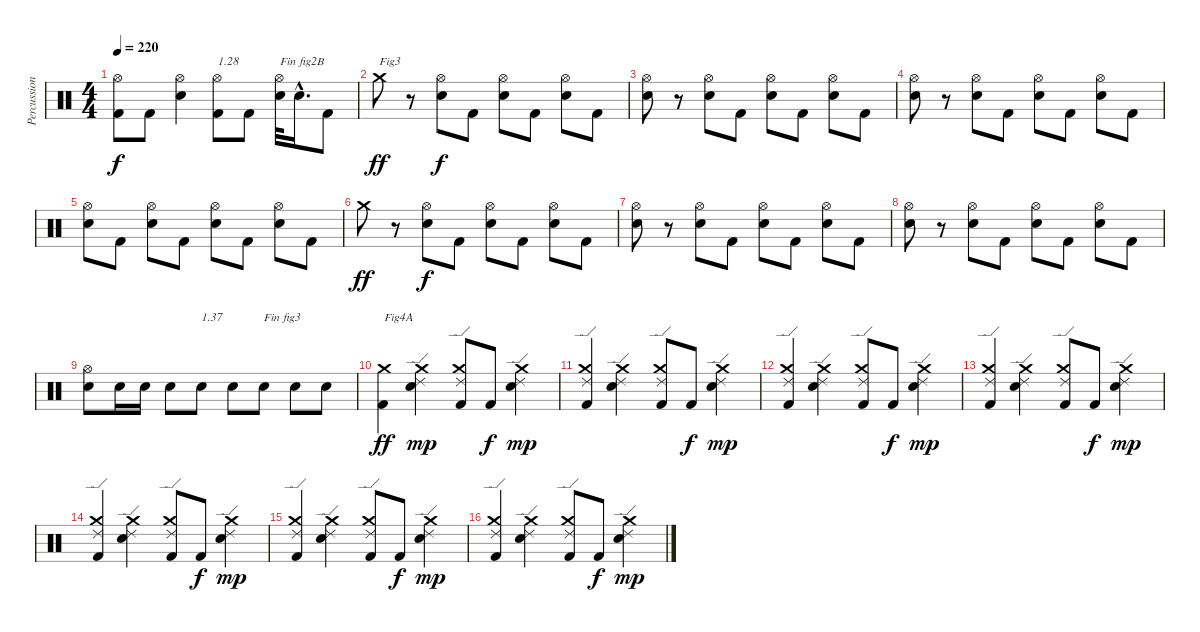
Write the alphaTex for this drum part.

\track ("Percussions" "Percussion") {instrument percussion}
\staff {score}
\articulation defaults
\ts (4 4)
\tempo 220
\clef neutral
\ks c
("Kick (hit) 2" "Hi-Hat (open)").8{dy f} "Kick (hit) 2".8 ("Electric Snare (hit)" "Hi-Hat (open)").4 ("Kick (hit) 2" "Hi-Hat (open)").8{txt "1.28"} "Kick (hit) 2".8 ("Electric Snare (hit)" "Hi-Hat (open)").32{txt "Fin fig2B"} "Electric Snare (hit)"{hac}.16{d} "Kick (hit) 2".8 |
"Crash medium (hit)".8{txt "Fig3" dy ff} r.8 ("Electric Snare (hit)" "Hi-Hat (open)").8{dy f} "Kick (hit) 2".8 ("Electric Snare (hit)" "Hi-Hat (open)").8 "Kick (hit) 2".8 ("Electric Snare (hit)" "Hi-Hat (open)").8 "Kick (hit) 2".8 |
("Electric Snare (hit)" "Hi-Hat (open)").8 r.8 ("Electric Snare (hit)" "Hi-Hat (open)").8 "Kick (hit) 2".8 ("Electric Snare (hit)" "Hi-Hat (open)").8 "Kick (hit) 2".8 ("Electric Snare (hit)" "Hi-Hat (open)").8 "Kick (hit) 2".8 |
("Electric Snare (hit)" "Hi-Hat (open)").8 r.8 ("Electric Snare (hit)" "Hi-Hat (open)").8 "Kick (hit) 2".8 ("Electric Snare (hit)" "Hi-Hat (open)").8 "Kick (hit) 2".8 ("Electric Snare (hit)" "Hi-Hat (open)").8 "Kick (hit) 2".8 |
("Electric Snare (hit)" "Hi-Hat (open)").8 "Kick (hit) 2".8 ("Electric Snare (hit)" "Hi-Hat (open)").8 "Kick (hit) 2".8 ("Electric Snare (hit)" "Hi-Hat (open)").8 "Kick (hit) 2".8 ("Electric Snare (hit)" "Hi-Hat (open)").8 "Kick (hit) 2".8 |
"Crash medium (hit)".8{dy ff} r.8 ("Electric Snare (hit)" "Hi-Hat (open)").8{dy f} "Kick (hit) 2".8 ("Electric Snare (hit)" "Hi-Hat (open)").8 "Kick (hit) 2".8 ("Electric Snare (hit)" "Hi-Hat (open)").8 "Kick (hit) 2".8 |
("Electric Snare (hit)" "Hi-Hat (open)").8 r.8 ("Electric Snare (hit)" "Hi-Hat (open)").8 "Kick (hit) 2".8 ("Electric Snare (hit)" "Hi-Hat (open)").8 "Kick (hit) 2".8 ("Electric Snare (hit)" "Hi-Hat (open)").8 "Kick (hit) 2".8 |
("Electric Snare (hit)" "Hi-Hat (open)").8 r.8 ("Electric Snare (hit)" "Hi-Hat (open)").8 "Kick (hit) 2".8 ("Electric Snare (hit)" "Hi-Hat (open)").8 "Kick (hit) 2".8 ("Electric Snare (hit)" "Hi-Hat (open)").8 "Kick (hit) 2".8 |
("Electric Snare (hit)" "Hi-Hat (open)").8 "Electric Snare (hit)".16 "Electric Snare (hit)".16 "Electric Snare (hit)".8 "Electric Snare (hit)".8{txt "1.37"} "Electric Snare (hit)".8 "Electric Snare (hit)".8{txt "Fin fig3"} "Electric Snare (hit)".8 "Electric Snare (hit)".8 |
("Kick (hit) 2" "Crash medium (hit)").4{txt "Fig4A" dy ff} ("Electric Snare (hit)" "Ride (edge) 2" "Crash medium (hit)").4{dy mp} ("Kick (hit) 2" "Ride (edge) 2" "Crash medium (hit)").8 "Kick (hit) 2".8{dy f} ("Electric Snare (hit)" "Ride (edge) 2" "Crash medium (hit)").4{dy mp} |
("Kick (hit) 2" "Ride (edge) 2" "Crash medium (hit)").4 ("Electric Snare (hit)" "Ride (edge) 2" "Crash medium (hit)").4 ("Kick (hit) 2" "Ride (edge) 2" "Crash medium (hit)").8 "Kick (hit) 2".8{dy f} ("Electric Snare (hit)" "Ride (edge) 2" "Crash medium (hit)").4{dy mp} |
("Kick (hit) 2" "Ride (edge) 2" "Crash medium (hit)").4 ("Electric Snare (hit)" "Ride (edge) 2" "Crash medium (hit)").4 ("Kick (hit) 2" "Ride (edge) 2" "Crash medium (hit)").8 "Kick (hit) 2".8{dy f} ("Electric Snare (hit)" "Ride (edge) 2" "Crash medium (hit)").4{dy mp} |
("Kick (hit) 2" "Ride (edge) 2" "Crash medium (hit)").4 ("Electric Snare (hit)" "Ride (edge) 2" "Crash medium (hit)").4 ("Kick (hit) 2" "Ride (edge) 2" "Crash medium (hit)").8 "Kick (hit) 2".8{dy f} ("Electric Snare (hit)" "Ride (edge) 2" "Crash medium (hit)").4{dy mp} |
("Kick (hit) 2" "Ride (edge) 2" "Crash medium (hit)").4 ("Electric Snare (hit)" "Ride (edge) 2" "Crash medium (hit)").4 ("Kick (hit) 2" "Ride (edge) 2" "Crash medium (hit)").8 "Kick (hit) 2".8{dy f} ("Electric Snare (hit)" "Ride (edge) 2" "Crash medium (hit)").4{dy mp} |
("Kick (hit) 2" "Ride (edge) 2" "Crash medium (hit)").4 ("Electric Snare (hit)" "Ride (edge) 2" "Crash medium (hit)").4 ("Kick (hit) 2" "Ride (edge) 2" "Crash medium (hit)").8 "Kick (hit) 2".8{dy f} ("Electric Snare (hit)" "Ride (edge) 2" "Crash medium (hit)").4{dy mp} |
("Kick (hit) 2" "Ride (edge) 2" "Crash medium (hit)").4 ("Electric Snare (hit)" "Ride (edge) 2" "Crash medium (hit)").4 ("Kick (hit) 2" "Ride (edge) 2" "Crash medium (hit)").8 "Kick (hit) 2".8{dy f} ("Electric Snare (hit)" "Ride (edge) 2" "Crash medium (hit)").4{dy mp}
